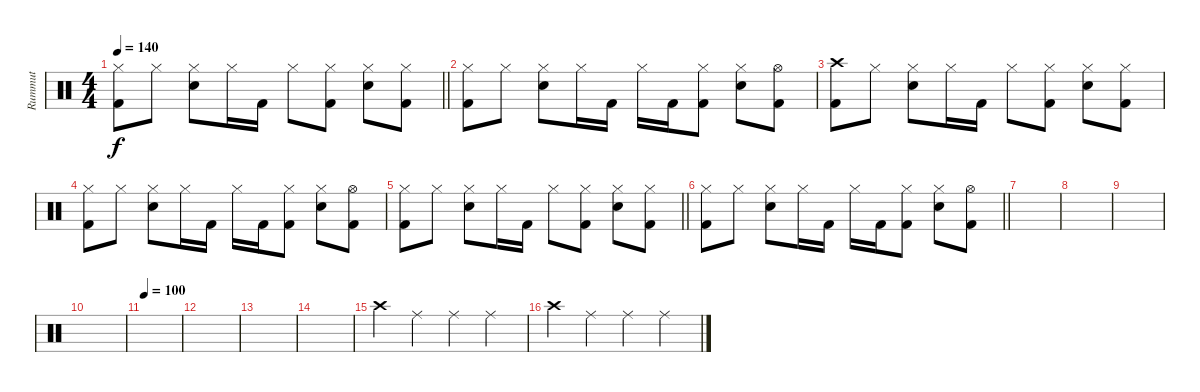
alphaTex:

\track ("Rummut" "Rummut") {instrument percussion}
\staff {score}
\articulation defaults
\ts (4 4)
\tempo 140
\clef neutral
\barLineRight lightlight
\ks c
("Hi-Hat (closed)" "Kick (hit) 2").8{dy f} "Hi-Hat (closed)".8 ("Hi-Hat (closed)" "Snare (hit) 2").8 "Hi-Hat (closed)".16 "Kick (hit) 2".16 "Hi-Hat (closed)".8 ("Hi-Hat (closed)" "Kick (hit) 2").8 ("Hi-Hat (closed)" "Snare (hit) 2").8 ("Hi-Hat (closed)" "Kick (hit) 2").8 |
("Hi-Hat (closed)" "Kick (hit) 2").8 "Hi-Hat (closed)".8 ("Hi-Hat (closed)" "Snare (hit) 2").8 "Hi-Hat (closed)".16 "Kick (hit) 2".16 "Hi-Hat (closed)".16 "Kick (hit) 2".16 ("Hi-Hat (closed)" "Kick (hit) 2").8 ("Hi-Hat (closed)" "Snare (hit) 2").8 ("Hi-Hat (open)" "Kick (hit) 2").8 |
("Crash high (hit)" "Kick (hit) 2").8 "Hi-Hat (closed)".8 ("Hi-Hat (closed)" "Snare (hit) 2").8 "Hi-Hat (closed)".16 "Kick (hit) 2".16 "Hi-Hat (closed)".8 ("Hi-Hat (closed)" "Kick (hit) 2").8 ("Hi-Hat (closed)" "Snare (hit) 2").8 ("Hi-Hat (closed)" "Kick (hit) 2").8 |
("Hi-Hat (closed)" "Kick (hit) 2").8 "Hi-Hat (closed)".8 ("Hi-Hat (closed)" "Snare (hit) 2").8 "Hi-Hat (closed)".16 "Kick (hit) 2".16 "Hi-Hat (closed)".16 "Kick (hit) 2".16 ("Hi-Hat (closed)" "Kick (hit) 2").8 ("Hi-Hat (closed)" "Snare (hit) 2").8 ("Hi-Hat (open)" "Kick (hit) 2").8 |
\barLineRight lightlight
("Hi-Hat (closed)" "Kick (hit) 2").8 "Hi-Hat (closed)".8 ("Hi-Hat (closed)" "Snare (hit) 2").8 "Hi-Hat (closed)".16 "Kick (hit) 2".16 "Hi-Hat (closed)".8 ("Hi-Hat (closed)" "Kick (hit) 2").8 ("Hi-Hat (closed)" "Snare (hit) 2").8 ("Hi-Hat (closed)" "Kick (hit) 2").8 |
\barLineRight lightlight
("Hi-Hat (closed)" "Kick (hit) 2").8 "Hi-Hat (closed)".8 ("Hi-Hat (closed)" "Snare (hit) 2").8 "Hi-Hat (closed)".16 "Kick (hit) 2".16 "Hi-Hat (closed)".16 "Kick (hit) 2".16 ("Hi-Hat (closed)" "Kick (hit) 2").8 ("Hi-Hat (closed)" "Snare (hit) 2").8 ("Hi-Hat (open)" "Kick (hit) 2").8 |
|
|
|
|
\tempo 100
|
|
|
|
"Crash high (hit)".4 "Ride (middle)".4 "Ride (middle)".4 "Ride (middle)".4 |
"Crash high (hit)".4 "Ride (middle)".4 "Ride (middle)".4 "Ride (middle)".4
